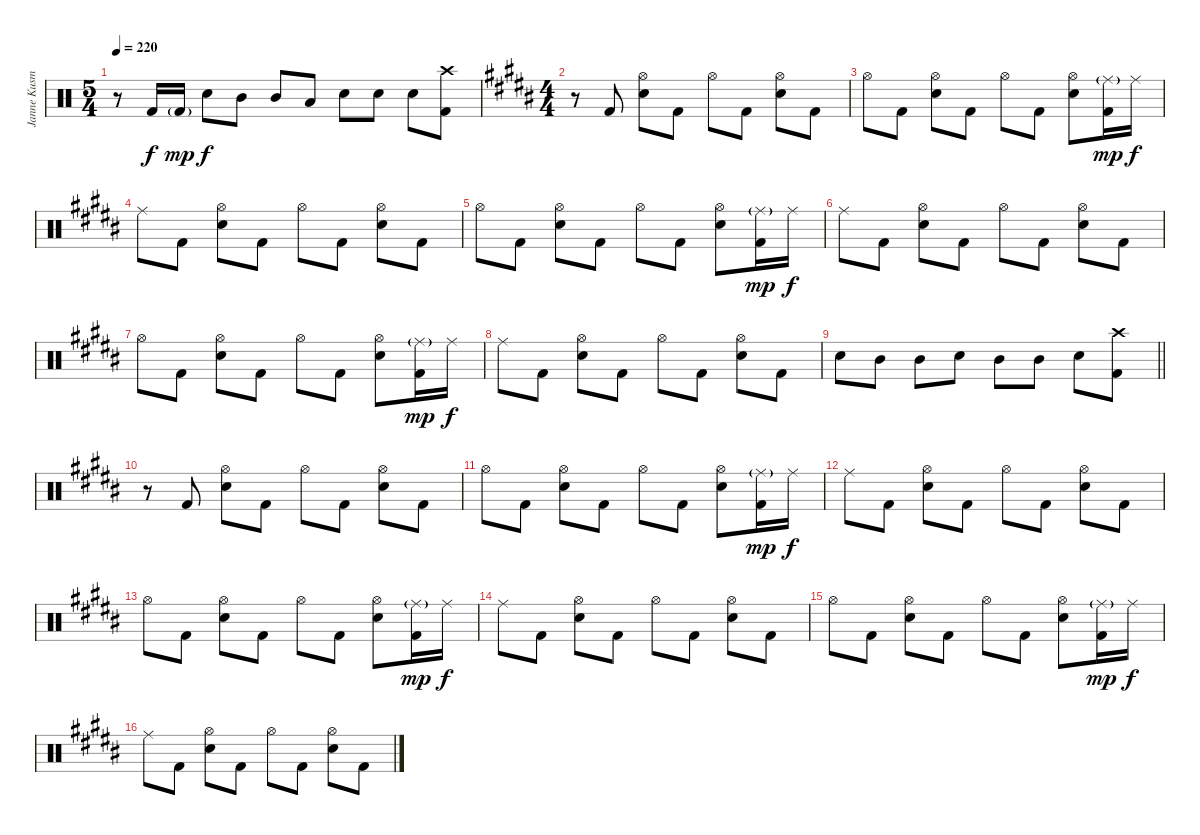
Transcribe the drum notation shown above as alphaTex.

\track ("Janne Kusmin" "Janne Kusm") {instrument percussion}
\staff {score}
\articulation defaults
\ts (5 4)
\tempo 220
\clef neutral
\ks c
r.8{dy f} "Kick (hit) 2".16 "Kick (hit) 2"{g}.16{dy mp} "Electric Snare (hit)".8{dy f} "Mid Tom (hit)".8 "Mid Tom (hit)".8 "Low Tom (hit)".8 "Electric Snare (hit)".8 "Electric Snare (hit)".8 "Electric Snare (hit)".8 ("Crash high (hit)" "Kick (hit) 2").8 |
\ts (4 4)
\ks g#minor
r.8 "Kick (hit) 2".8 ("Hi-Hat (open)" "Electric Snare (hit)").8 "Kick (hit) 2".8 "Hi-Hat (open)".8 "Kick (hit) 2".8 ("Hi-Hat (open)" "Electric Snare (hit)").8 "Kick (hit) 2".8 |
"Hi-Hat (open)".8 "Kick (hit) 2".8 ("Hi-Hat (open)" "Electric Snare (hit)").8 "Kick (hit) 2".8 "Hi-Hat (open)".8 "Kick (hit) 2".8 ("Hi-Hat (open)" "Electric Snare (hit)").8 ("Ride (middle)"{g} "Kick (hit) 2").16{dy mp} "Ride (middle)".16{dy f} |
"Ride (middle)".8 "Kick (hit) 2".8 ("Hi-Hat (open)" "Electric Snare (hit)").8 "Kick (hit) 2".8 "Hi-Hat (open)".8 "Kick (hit) 2".8 ("Hi-Hat (open)" "Electric Snare (hit)").8 "Kick (hit) 2".8 |
"Hi-Hat (open)".8 "Kick (hit) 2".8 ("Hi-Hat (open)" "Electric Snare (hit)").8 "Kick (hit) 2".8 "Hi-Hat (open)".8 "Kick (hit) 2".8 ("Hi-Hat (open)" "Electric Snare (hit)").8 ("Ride (middle)"{g} "Kick (hit) 2").16{dy mp} "Ride (middle)".16{dy f} |
"Ride (middle)".8 "Kick (hit) 2".8 ("Hi-Hat (open)" "Electric Snare (hit)").8 "Kick (hit) 2".8 "Hi-Hat (open)".8 "Kick (hit) 2".8 ("Hi-Hat (open)" "Electric Snare (hit)").8 "Kick (hit) 2".8 |
"Hi-Hat (open)".8 "Kick (hit) 2".8 ("Hi-Hat (open)" "Electric Snare (hit)").8 "Kick (hit) 2".8 "Hi-Hat (open)".8 "Kick (hit) 2".8 ("Hi-Hat (open)" "Electric Snare (hit)").8 ("Ride (middle)"{g} "Kick (hit) 2").16{dy mp} "Ride (middle)".16{dy f} |
"Ride (middle)".8 "Kick (hit) 2".8 ("Hi-Hat (open)" "Electric Snare (hit)").8 "Kick (hit) 2".8 "Hi-Hat (open)".8 "Kick (hit) 2".8 ("Hi-Hat (open)" "Electric Snare (hit)").8 "Kick (hit) 2".8 |
\barLineRight lightlight
\ks b "Electric Snare (hit)".8 "Mid Tom (hit)".8 "Mid Tom (hit)".8 "Electric Snare (hit)".8 "Mid Tom (hit)".8 "Mid Tom (hit)".8 "Electric Snare (hit)".8
("Crash high (hit)" "Kick (hit) 2").8 |
\ks g#minor
r.8 "Kick (hit) 2".8 ("Hi-Hat (open)" "Electric Snare (hit)").8 "Kick (hit) 2".8 "Hi-Hat (open)".8 "Kick (hit) 2".8 ("Hi-Hat (open)" "Electric Snare (hit)").8 "Kick (hit) 2".8 |
"Hi-Hat (open)".8 "Kick (hit) 2".8 ("Hi-Hat (open)" "Electric Snare (hit)").8 "Kick (hit) 2".8 "Hi-Hat (open)".8 "Kick (hit) 2".8 ("Hi-Hat (open)" "Electric Snare (hit)").8 ("Ride (middle)"{g} "Kick (hit) 2").16{dy mp} "Ride (middle)".16{dy f} |
"Ride (middle)".8 "Kick (hit) 2".8 ("Hi-Hat (open)" "Electric Snare (hit)").8 "Kick (hit) 2".8 "Hi-Hat (open)".8 "Kick (hit) 2".8 ("Hi-Hat (open)" "Electric Snare (hit)").8 "Kick (hit) 2".8 |
"Hi-Hat (open)".8 "Kick (hit) 2".8 ("Hi-Hat (open)" "Electric Snare (hit)").8 "Kick (hit) 2".8 "Hi-Hat (open)".8 "Kick (hit) 2".8 ("Hi-Hat (open)" "Electric Snare (hit)").8 ("Ride (middle)"{g} "Kick (hit) 2").16{dy mp} "Ride (middle)".16{dy f} |
"Ride (middle)".8 "Kick (hit) 2".8 ("Hi-Hat (open)" "Electric Snare (hit)").8 "Kick (hit) 2".8 "Hi-Hat (open)".8 "Kick (hit) 2".8 ("Hi-Hat (open)" "Electric Snare (hit)").8 "Kick (hit) 2".8 |
"Hi-Hat (open)".8 "Kick (hit) 2".8 ("Hi-Hat (open)" "Electric Snare (hit)").8 "Kick (hit) 2".8 "Hi-Hat (open)".8 "Kick (hit) 2".8 ("Hi-Hat (open)" "Electric Snare (hit)").8 ("Ride (middle)"{g} "Kick (hit) 2").16{dy mp} "Ride (middle)".16{dy f} |
"Ride (middle)".8 "Kick (hit) 2".8 ("Hi-Hat (open)" "Electric Snare (hit)").8 "Kick (hit) 2".8 "Hi-Hat (open)".8 "Kick (hit) 2".8 ("Hi-Hat (open)" "Electric Snare (hit)").8 "Kick (hit) 2".8
